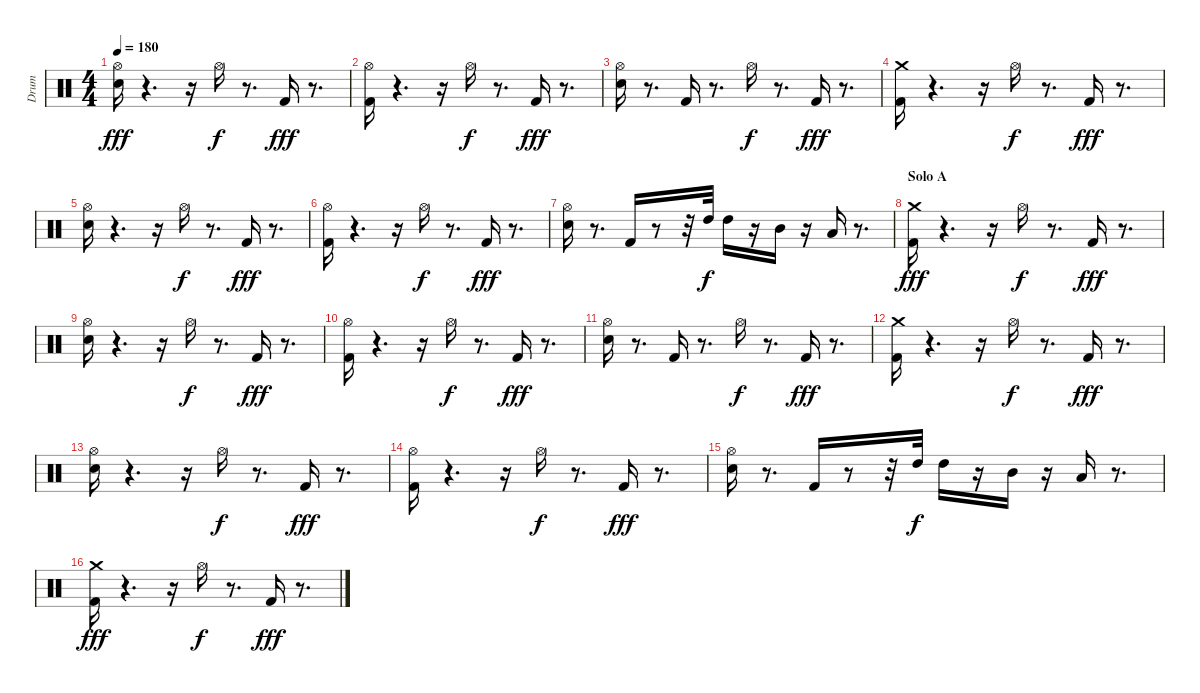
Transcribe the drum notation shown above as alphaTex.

\track ("Drum" "Drum") {instrument percussion}
\staff {score}
\articulation defaults
\ts (4 4)
\tempo 180
\clef neutral
\ks c
("Electric Snare (hit)" "Hi-Hat (open)").16{dy fff} r.4{d} r.16 "Hi-Hat (open)".16{dy f} r.8{d} "Kick (hit) 2".16{dy fff} r.8{d} |
("Kick (hit) 2" "Hi-Hat (open)").16 r.4{d} r.16 "Hi-Hat (open)".16{dy f} r.8{d} "Kick (hit) 2".16{dy fff} r.8{d} |
("Electric Snare (hit)" "Hi-Hat (open)").16 r.8{d} "Kick (hit) 2".16 r.8{d} "Hi-Hat (open)".16{dy f} r.8{d} "Kick (hit) 2".16{dy fff} r.8{d} |
("Kick (hit) 2" "Crash medium (hit)").16 r.4{d} r.16 "Hi-Hat (open)".16{dy f} r.8{d} "Kick (hit) 2".16{dy fff} r.8{d} |
("Electric Snare (hit)" "Hi-Hat (open)").16 r.4{d} r.16 "Hi-Hat (open)".16{dy f} r.8{d} "Kick (hit) 2".16{dy fff} r.8{d} |
("Kick (hit) 2" "Hi-Hat (open)").16 r.4{d} r.16 "Hi-Hat (open)".16{dy f} r.8{d} "Kick (hit) 2".16{dy fff} r.8{d} |
("Electric Snare (hit)" "Hi-Hat (open)").16 r.8{d} "Kick (hit) 2".16 r.8 r.32 "High Tom (hit)".32{dy f} "High Tom (hit)".16 r.16 "Mid Tom (hit)".16 r.16 "Low Tom (hit)".16 r.8{d} |
\section ("" "Solo A")
("Kick (hit) 2" "Crash medium (hit)").16{dy fff} r.4{d} r.16 "Hi-Hat (open)".16{dy f} r.8{d} "Kick (hit) 2".16{dy fff} r.8{d} |
("Electric Snare (hit)" "Hi-Hat (open)").16 r.4{d} r.16 "Hi-Hat (open)".16{dy f} r.8{d} "Kick (hit) 2".16{dy fff} r.8{d} |
("Kick (hit) 2" "Hi-Hat (open)").16 r.4{d} r.16 "Hi-Hat (open)".16{dy f} r.8{d} "Kick (hit) 2".16{dy fff} r.8{d} |
("Electric Snare (hit)" "Hi-Hat (open)").16 r.8{d} "Kick (hit) 2".16 r.8{d} "Hi-Hat (open)".16{dy f} r.8{d} "Kick (hit) 2".16{dy fff} r.8{d} |
("Kick (hit) 2" "Crash medium (hit)").16 r.4{d} r.16 "Hi-Hat (open)".16{dy f} r.8{d} "Kick (hit) 2".16{dy fff} r.8{d} |
("Electric Snare (hit)" "Hi-Hat (open)").16 r.4{d} r.16 "Hi-Hat (open)".16{dy f} r.8{d} "Kick (hit) 2".16{dy fff} r.8{d} |
("Kick (hit) 2" "Hi-Hat (open)").16 r.4{d} r.16 "Hi-Hat (open)".16{dy f} r.8{d} "Kick (hit) 2".16{dy fff} r.8{d} |
("Electric Snare (hit)" "Hi-Hat (open)").16 r.8{d} "Kick (hit) 2".16 r.8 r.32 "High Tom (hit)".32{dy f} "High Tom (hit)".16 r.16 "Mid Tom (hit)".16 r.16 "Low Tom (hit)".16 r.8{d} |
("Kick (hit) 2" "Crash medium (hit)").16{dy fff} r.4{d} r.16 "Hi-Hat (open)".16{dy f} r.8{d} "Kick (hit) 2".16{dy fff} r.8{d}
